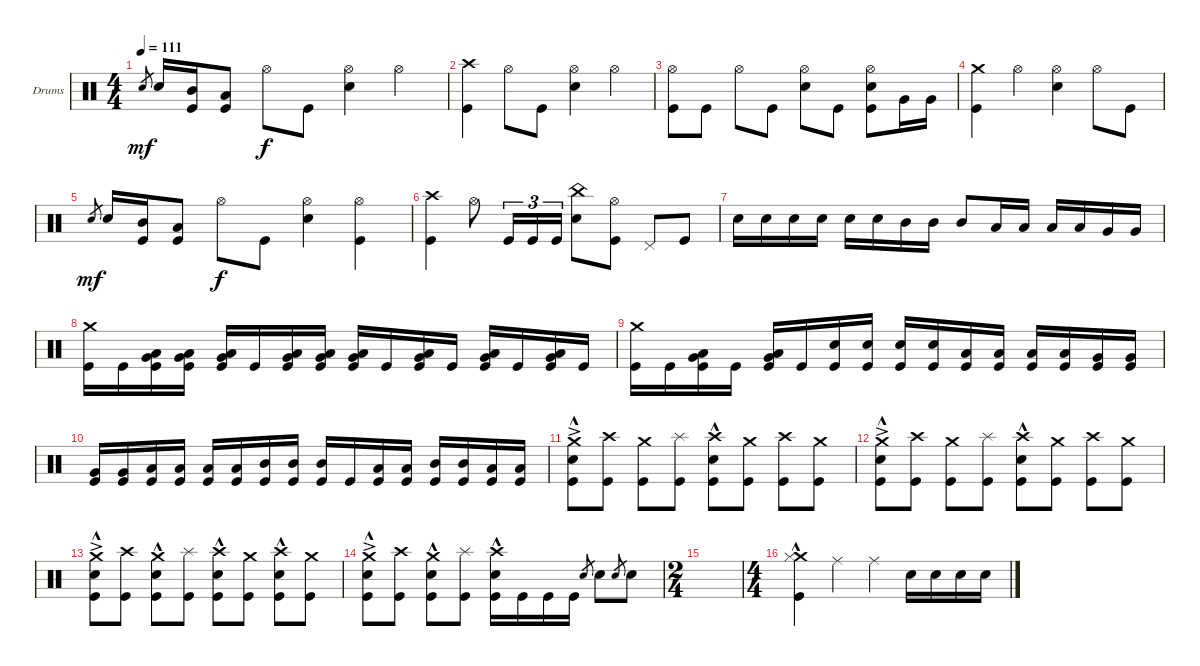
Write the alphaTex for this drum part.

\defaultSystemsLayout 4
\bracketExtendMode groupsimilarinstruments
\firstSystemTrackNameOrientation horizontal
\otherSystemsTrackNameOrientation horizontal
\track ("Drumkit" "Drums") {instrument percussion}
\staff {score}
\articulation defaults
\ts (4 4)
\tempo 111
\clef neutral
\ks c "Snare (hit) 2".8{gr dy mf} "Snare (hit) 2".16
("Kick (hit)" "Mid Tom (hit)").16 ("Kick (hit)" "Low Tom (hit)").8 "Hi-Hat (open)".8{dy f} "Kick (hit)".8 ("Snare (hit) 2" "Hi-Hat (open)").4 "Hi-Hat (open)".4 |
("Kick (hit)" "Crash high (hit)").4 "Hi-Hat (open)".8 "Kick (hit)".8 ("Snare (hit) 2" "Hi-Hat (open)").4 "Hi-Hat (open)".4 |
("Hi-Hat (open)" "Kick (hit)").8 "Kick (hit)".8 "Hi-Hat (open)".8 "Kick (hit)".8 ("Hi-Hat (open)" "Snare (hit) 2").8 "Kick (hit)".8 ("Hi-Hat (open)" "Snare (hit) 2" "Kick (hit)").8 "Very Low Tom (hit)".16 "Very Low Tom (hit)".16 |
("Crash medium (hit)" "Kick (hit)").4 "Hi-Hat (open)".4 ("Snare (hit) 2" "Hi-Hat (open)").4 "Hi-Hat (open)".8 "Kick (hit)".8 |
"Snare (hit) 2".8{gr dy mf} "Snare (hit) 2".16 ("Kick (hit)" "Mid Tom (hit)").16 ("Kick (hit)" "Low Tom (hit)").8 "Hi-Hat (open)".8{dy f} "Kick (hit)".8 ("Snare (hit) 2" "Hi-Hat (open)").4 ("Hi-Hat (open)" "Kick (hit)").4 |
("Kick (hit)" "Crash high (hit)").4 "Hi-Hat (open)".8 "Kick (hit)".16{tu (3 2)} "Kick (hit)".16{tu (3 2)} "Kick (hit)".16{tu (3 2)} ("Snare (hit) 2" "China (hit)").8 ("Kick (hit)" "Hi-Hat (open)").8 "Pedal Hi-Hat (hit)".8 "Kick (hit)".8 |
"Snare (hit) 2".16 "Snare (hit) 2".16 "Snare (hit) 2".16 "Snare (hit) 2".16 "Snare (hit) 2".16 "Snare (hit) 2".16 "Mid Tom (hit)".16 "Mid Tom (hit)".16 "Mid Tom (hit)".8 "Low Tom (hit)".16 "Low Tom (hit)".16 "Low Tom (hit)".16 "Low Tom (hit)".16 "Very Low Tom (hit)".16 "Very Low Tom (hit)".16 |
("Crash medium (hit)" "Kick (hit)").16 "Kick (hit)".16 ("Low Tom (hit)" "Very Low Tom (hit)" "Kick (hit)").16 ("Low Tom (hit)" "Very Low Tom (hit)" "Kick (hit)").16 ("Very Low Tom (hit)" "Low Tom (hit)" "Kick (hit)").16 "Kick (hit)".16 ("Low Tom (hit)" "Very Low Tom (hit)" "Kick (hit)").16 ("Low Tom (hit)" "Very Low Tom (hit)" "Kick (hit)").16 ("Low Tom (hit)" "Very Low Tom (hit)" "Kick (hit)").16 "Kick (hit)".16 ("Low Tom (hit)" "Very Low Tom (hit)" "Kick (hit)").16 "Kick (hit)".16 ("Low Tom (hit)" "Very Low Tom (hit)" "Kick (hit)").16 "Kick (hit)".16 ("Very Low Tom (hit)" "Low Tom (hit)" "Kick (hit)").16 "Kick (hit)".16 |
("Crash medium (hit)" "Kick (hit)").16 "Kick (hit)".16 ("Low Tom (hit)" "Very Low Tom (hit)" "Kick (hit)").16 "Kick (hit)".16 ("Low Tom (hit)" "Very Low Tom (hit)" "Kick (hit)").16 "Kick (hit)".16 ("Snare (hit) 2" "Kick (hit)").16 ("Snare (hit) 2" "Kick (hit)").16 ("Kick (hit)" "Snare (hit) 2").16 ("Kick (hit)" "Snare (hit) 2").16 ("Kick (hit)" "Low Tom (hit)").16 ("Kick (hit)" "Low Tom (hit)").16 ("Kick (hit)" "Low Tom (hit)").16 ("Kick (hit)" "Low Tom (hit)").16 ("Very Low Tom (hit)" "Kick (hit)").16 ("Very Low Tom (hit)" "Kick (hit)").16 |
("Kick (hit)" "Very Low Tom (hit)").16 ("Kick (hit)" "Very Low Tom (hit)").16 ("Kick (hit)" "Low Tom (hit)").16 ("Kick (hit)" "Low Tom (hit)").16 ("Kick (hit)" "Low Tom (hit)").16 ("Kick (hit)" "Low Tom (hit)").16 ("Kick (hit)" "Mid Tom (hit)").16 ("Kick (hit)" "Mid Tom (hit)").16 ("Kick (hit)" "Mid Tom (hit)").16 "Kick (hit)".16 ("Kick (hit)" "Low Tom (hit)").16 ("Kick (hit)" "Low Tom (hit)").16 ("Kick (hit)" "Mid Tom (hit)").16 ("Kick (hit)" "Mid Tom (hit)").16 ("Kick (hit)" "Low Tom (hit)").16 ("Kick (hit)" "Low Tom (hit)").16 |
("Kick (hit)" "Crash medium (hit)"{ac} "Snare (hit) 2"{hac}).8 ("Kick (hit)" "Crash high (hit)").8 ("Kick (hit)" "Crash medium (hit)").8 ("Kick (hit)" "Splash (hit)").8 ("Kick (hit)" "Crash high (hit)" "Snare (hit) 2"{hac}).8 ("Kick (hit)" "Crash medium (hit)").8 ("Kick (hit)" "Crash high (hit)").8 ("Kick (hit)" "Crash medium (hit)").8 |
("Kick (hit)" "Crash medium (hit)"{ac} "Snare (hit) 2"{hac}).8 ("Kick (hit)" "Crash high (hit)").8 ("Kick (hit)" "Crash medium (hit)").8 ("Kick (hit)" "Splash (hit)").8 ("Kick (hit)" "Crash high (hit)" "Snare (hit) 2"{hac}).8 ("Kick (hit)" "Crash medium (hit)").8 ("Kick (hit)" "Crash high (hit)").8 ("Kick (hit)" "Crash medium (hit)").8 |
("Kick (hit)" "Crash medium (hit)"{ac} "Snare (hit) 2"{hac}).8 ("Kick (hit)" "Crash high (hit)").8 ("Kick (hit)" "Crash medium (hit)" "Snare (hit) 2"{hac}).8 ("Kick (hit)" "Splash (hit)").8 ("Kick (hit)" "Crash high (hit)" "Snare (hit) 2"{hac}).8 ("Kick (hit)" "Crash medium (hit)").8 ("Kick (hit)" "Crash high (hit)" "Snare (hit) 2"{hac}).8 ("Kick (hit)" "Crash medium (hit)").8 |
("Kick (hit)" "Crash medium (hit)"{ac} "Snare (hit) 2"{hac}).8 ("Kick (hit)" "Crash high (hit)").8 ("Kick (hit)" "Crash medium (hit)" "Snare (hit) 2"{hac}).8 ("Kick (hit)" "Splash (hit)").8 ("Kick (hit)" "Crash high (hit)" "Snare (hit) 2"{hac}).16 "Kick (hit)".16 "Kick (hit)".16 "Kick (hit)".16 "Snare (hit) 2".8{gr} "Snare (hit) 2".8 "Snare (hit) 2".8{gr} "Snare (hit) 2".8 |
\ts (2 4)
|
\ts (4 4)
("Crash medium (hit)" "Kick (hit)" "Hi-Hat (closed)"{hac}).4 "Ride (middle)".4 "Ride (middle)".4 "Snare (hit) 2".16 "Snare (hit) 2".16 "Snare (hit) 2".16 "Snare (hit) 2".16
